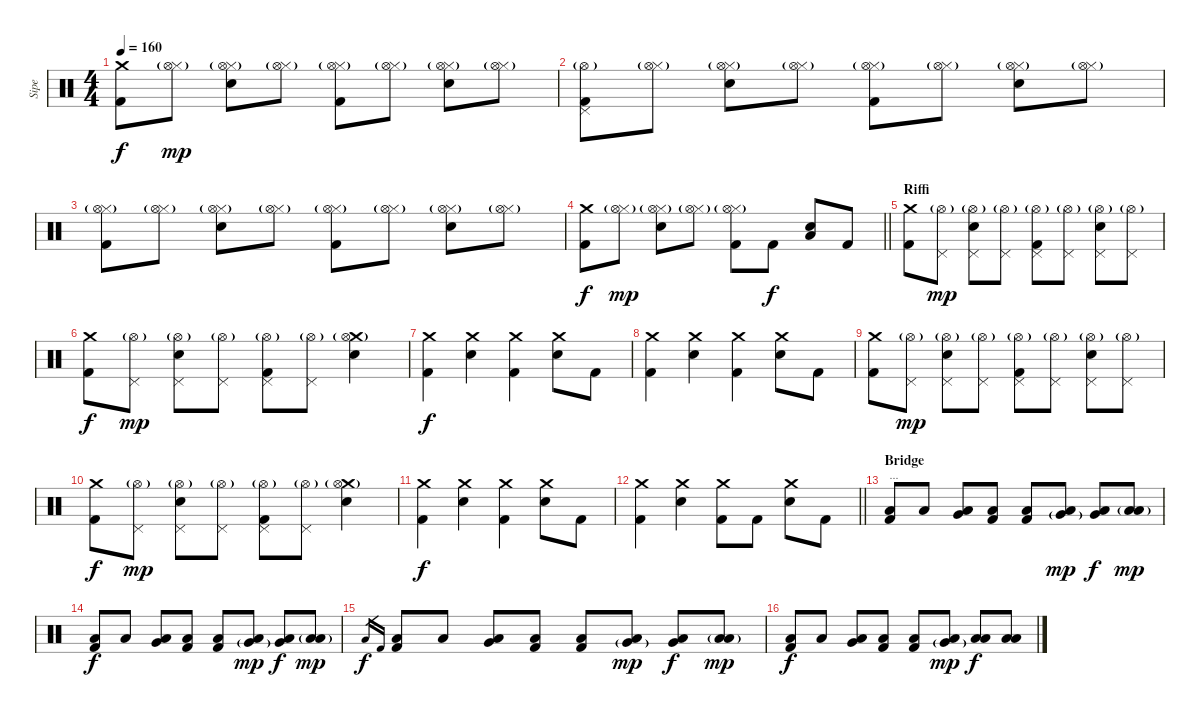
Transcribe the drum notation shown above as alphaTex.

\track ("Sipe" "Sipe") {instrument percussion}
\staff {score}
\articulation defaults
\ts (4 4)
\tempo 160
\clef neutral
\ks c
("Crash medium (hit)" "Kick (hit) 2").8{dy f} ("Hi-Hat (closed)" "Hi-Hat (open)"{g}).8{dy mp} ("Hi-Hat (closed)" "Snare (hit) 2" "Hi-Hat (open)"{g}).8 ("Hi-Hat (closed)" "Hi-Hat (open)"{g}).8 ("Hi-Hat (closed)" "Kick (hit) 2" "Hi-Hat (open)"{g}).8 ("Hi-Hat (closed)" "Hi-Hat (open)"{g}).8 ("Hi-Hat (closed)" "Snare (hit) 2" "Hi-Hat (open)"{g}).8 ("Hi-Hat (closed)" "Hi-Hat (open)"{g}).8 |
("Pedal Hi-Hat (hit)" "Kick (hit) 2" "Hi-Hat (open)"{g}).8 ("Hi-Hat (closed)" "Hi-Hat (open)"{g}).8 ("Hi-Hat (closed)" "Snare (hit) 2" "Hi-Hat (open)"{g}).8 ("Hi-Hat (closed)" "Hi-Hat (open)"{g}).8 ("Hi-Hat (closed)" "Kick (hit) 2" "Hi-Hat (open)"{g}).8 ("Hi-Hat (closed)" "Hi-Hat (open)"{g}).8 ("Hi-Hat (closed)" "Snare (hit) 2" "Hi-Hat (open)"{g}).8 ("Hi-Hat (closed)" "Hi-Hat (open)"{g}).8 |
("Hi-Hat (closed)" "Kick (hit) 2" "Hi-Hat (open)"{g}).8 ("Hi-Hat (closed)" "Hi-Hat (open)"{g}).8 ("Hi-Hat (closed)" "Snare (hit) 2" "Hi-Hat (open)"{g}).8 ("Hi-Hat (closed)" "Hi-Hat (open)"{g}).8 ("Hi-Hat (closed)" "Kick (hit) 2" "Hi-Hat (open)"{g}).8 ("Hi-Hat (closed)" "Hi-Hat (open)"{g}).8 ("Hi-Hat (closed)" "Snare (hit) 2" "Hi-Hat (open)"{g}).8 ("Hi-Hat (closed)" "Hi-Hat (open)"{g}).8 |
\barLineRight lightlight
("Crash medium (hit)" "Kick (hit) 2").8{dy f} ("Hi-Hat (closed)" "Hi-Hat (open)"{g}).8{dy mp} ("Hi-Hat (closed)" "Snare (hit) 2" "Hi-Hat (open)"{g}).8 ("Hi-Hat (closed)" "Hi-Hat (open)"{g}).8 ("Hi-Hat (closed)" "Kick (hit) 2" "Hi-Hat (open)"{g}).8 "Kick (hit) 2".8{dy f} ("Low Floor Tom (hit)" "Snare (hit) 2").8 "Kick (hit) 2".8 |
\section ("" "Riffi")
("Crash medium (hit)" "Kick (hit) 2").8 ("Pedal Hi-Hat (hit)" "Hi-Hat (open)"{g}).8{dy mp} ("Pedal Hi-Hat (hit)" "Snare (hit) 2" "Hi-Hat (open)"{g}).8 ("Pedal Hi-Hat (hit)" "Hi-Hat (open)"{g}).8 ("Pedal Hi-Hat (hit)" "Kick (hit) 2" "Hi-Hat (open)"{g}).8 ("Pedal Hi-Hat (hit)" "Hi-Hat (open)"{g}).8 ("Pedal Hi-Hat (hit)" "Snare (hit) 2" "Hi-Hat (open)"{g}).8 ("Pedal Hi-Hat (hit)" "Hi-Hat (open)"{g}).8 |
("Crash medium (hit)" "Kick (hit) 2").8{dy f} ("Pedal Hi-Hat (hit)" "Hi-Hat (open)"{g}).8{dy mp} ("Pedal Hi-Hat (hit)" "Snare (hit) 2" "Hi-Hat (open)"{g}).8 ("Pedal Hi-Hat (hit)" "Hi-Hat (open)"{g}).8 ("Pedal Hi-Hat (hit)" "Kick (hit) 2" "Hi-Hat (open)"{g}).8 ("Pedal Hi-Hat (hit)" "Hi-Hat (open)"{g}).8 ("Crash medium (hit)" "Snare (hit) 2" "Hi-Hat (open)"{g}).4 |
("Crash medium (hit)" "Kick (hit) 2").4{dy f} ("Crash medium (hit)" "Snare (hit) 2").4 ("Crash medium (hit)" "Kick (hit) 2").4 ("Crash medium (hit)" "Snare (hit) 2").8 "Kick (hit) 2".8 |
("Crash medium (hit)" "Kick (hit) 2").4 ("Crash medium (hit)" "Snare (hit) 2").4 ("Crash medium (hit)" "Kick (hit) 2").4 ("Crash medium (hit)" "Snare (hit) 2").8 "Kick (hit) 2".8 |
("Crash medium (hit)" "Kick (hit) 2").8 ("Pedal Hi-Hat (hit)" "Hi-Hat (open)"{g}).8{dy mp} ("Pedal Hi-Hat (hit)" "Snare (hit) 2" "Hi-Hat (open)"{g}).8 ("Pedal Hi-Hat (hit)" "Hi-Hat (open)"{g}).8 ("Pedal Hi-Hat (hit)" "Kick (hit) 2" "Hi-Hat (open)"{g}).8 ("Pedal Hi-Hat (hit)" "Hi-Hat (open)"{g}).8 ("Pedal Hi-Hat (hit)" "Snare (hit) 2" "Hi-Hat (open)"{g}).8 ("Pedal Hi-Hat (hit)" "Hi-Hat (open)"{g}).8 |
("Crash medium (hit)" "Kick (hit) 2").8{dy f} ("Pedal Hi-Hat (hit)" "Hi-Hat (open)"{g}).8{dy mp} ("Pedal Hi-Hat (hit)" "Snare (hit) 2" "Hi-Hat (open)"{g}).8 ("Pedal Hi-Hat (hit)" "Hi-Hat (open)"{g}).8 ("Pedal Hi-Hat (hit)" "Kick (hit) 2" "Hi-Hat (open)"{g}).8 ("Pedal Hi-Hat (hit)" "Hi-Hat (open)"{g}).8 ("Crash medium (hit)" "Snare (hit) 2" "Hi-Hat (open)"{g}).4 |
("Crash medium (hit)" "Kick (hit) 2").4{dy f} ("Crash medium (hit)" "Snare (hit) 2").4 ("Crash medium (hit)" "Kick (hit) 2").4 ("Crash medium (hit)" "Snare (hit) 2").8 "Kick (hit) 2".8 |
\barLineRight lightlight
("Crash medium (hit)" "Kick (hit) 2").4 ("Crash medium (hit)" "Snare (hit) 2").4 ("Crash medium (hit)" "Kick (hit) 2").8 "Kick (hit) 2".8 ("Crash medium (hit)" "Snare (hit) 2").8 "Kick (hit) 2".8 |
\section ("" "Bridge")
("Low Floor Tom (hit)" "Kick (hit) 2").8{txt "..."} "Low Floor Tom (hit)".8 ("Low Floor Tom (hit)" "Very Low Tom (hit)").8 ("Low Floor Tom (hit)" "Kick (hit) 2").8 ("Low Floor Tom (hit)" "Kick (hit) 2").8 ("Low Floor Tom (hit)" "Very Low Tom (hit)"{g}).8{dy mp} ("Low Floor Tom (hit)" "Very Low Tom (hit)").8{dy f} ("Low Floor Tom (hit)" "Low Tom (hit)"{g}).8{dy mp} |
("Low Floor Tom (hit)" "Kick (hit) 2").8{dy f} "Low Floor Tom (hit)".8 ("Low Floor Tom (hit)" "Very Low Tom (hit)").8 ("Low Floor Tom (hit)" "Kick (hit) 2").8 ("Low Floor Tom (hit)" "Kick (hit) 2").8 ("Low Floor Tom (hit)" "Very Low Tom (hit)"{g}).8{dy mp} ("Low Floor Tom (hit)" "Very Low Tom (hit)").8{dy f} ("Low Floor Tom (hit)" "Low Tom (hit)"{g}).8{dy mp} |
"Low Floor Tom (hit)".16{gr dy f} "Kick (hit) 2".16{gr} ("Low Floor Tom (hit)" "Kick (hit) 2").8 "Low Floor Tom (hit)".8 ("Low Floor Tom (hit)" "Very Low Tom (hit)").8 ("Low Floor Tom (hit)" "Kick (hit) 2").8 ("Low Floor Tom (hit)" "Kick (hit) 2").8 ("Low Floor Tom (hit)" "Very Low Tom (hit)"{g}).8{dy mp} ("Low Floor Tom (hit)" "Very Low Tom (hit)").8{dy f} ("Low Floor Tom (hit)" "Low Tom (hit)"{g}).8{dy mp} |
("Low Floor Tom (hit)" "Kick (hit) 2").8{dy f} "Low Floor Tom (hit)".8 ("Low Floor Tom (hit)" "Very Low Tom (hit)").8 ("Low Floor Tom (hit)" "Kick (hit) 2").8 ("Low Floor Tom (hit)" "Kick (hit) 2").8 ("Low Floor Tom (hit)" "Very Low Tom (hit)"{g}).8{dy mp} ("Low Floor Tom (hit)" "Low Tom (hit)").8{dy f} ("Low Floor Tom (hit)" "Low Tom (hit)").8
